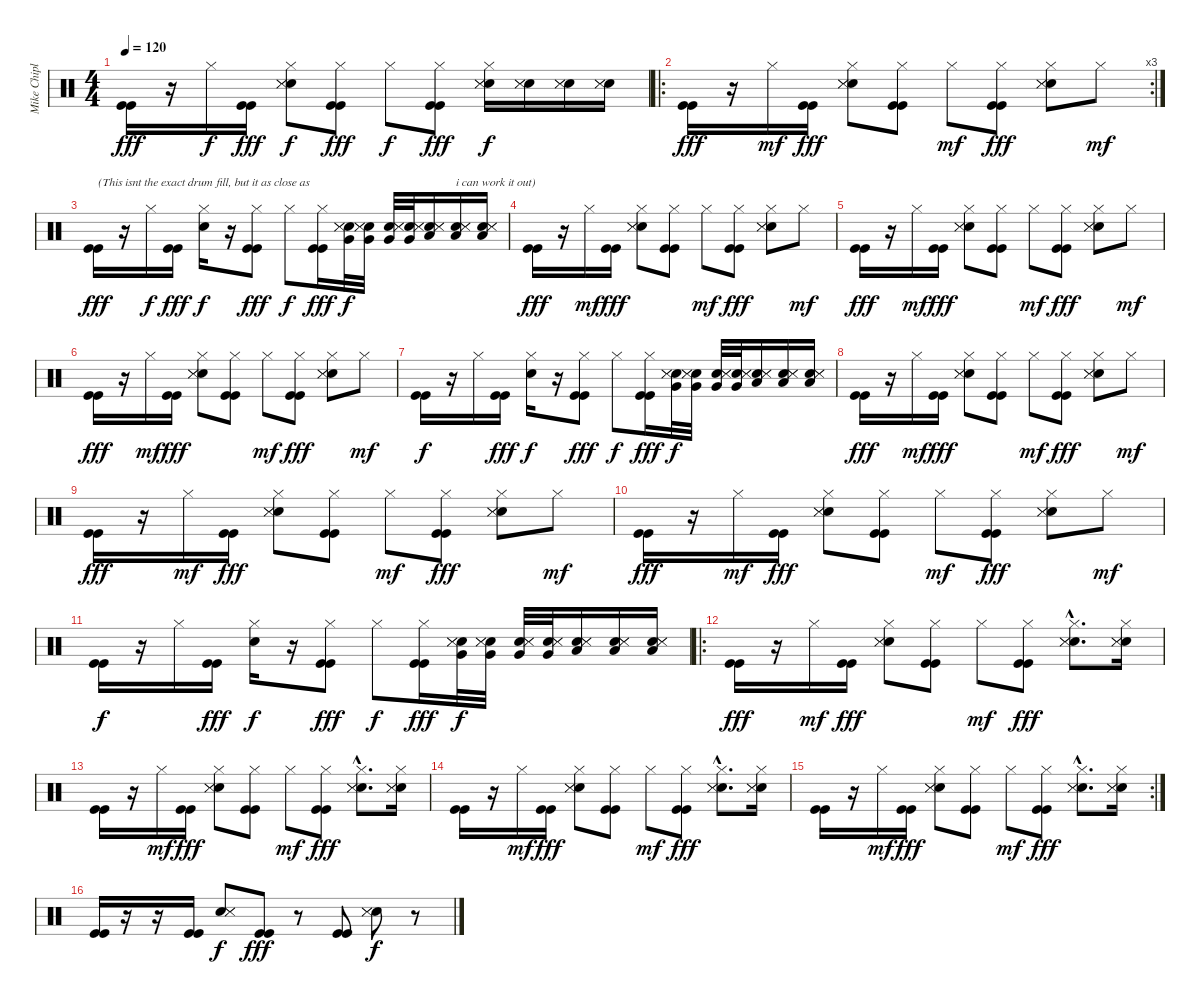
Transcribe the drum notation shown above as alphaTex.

\track ("Mike Chiplin" "Mike Chipl") {instrument percussion}
\staff {score}
\articulation defaults
\ts (4 4)
\tempo 120
\clef neutral
\ks c
("Kick (hit)" "Kick (hit)").16{dy fff} r.16 "Hi-Hat (closed)".16{dy f} ("Kick (hit)" "Kick (hit)").16{dy fff} ("Hi-Hat (closed)" "Electric Snare (hit)" "Snare (side stick) 3" "Snare (side stick) 3").8{dy f} ("Hi-Hat (closed)" "Kick (hit)" "Kick (hit)").8{dy fff} "Hi-Hat (closed)".8{dy f} ("Hi-Hat (closed)" "Kick (hit)" "Kick (hit)").8{dy fff} ("Hi-Hat (closed)" "Electric Snare (hit)" "Snare (side stick) 3" "Snare (side stick) 3").16{dy f} ("Electric Snare (hit)" "Snare (side stick) 3" "Snare (side stick) 3").16 ("Electric Snare (hit)" "Snare (side stick) 3" "Snare (side stick) 3").16 ("Electric Snare (hit)" "Snare (side stick) 3" "Snare (side stick) 3").16 |
\ro
\rc 3
("Kick (hit)" "Kick (hit)").16{dy fff} r.16 "Hi-Hat (closed)".16{dy mf} ("Kick (hit)" "Kick (hit)").16{dy fff} ("Hi-Hat (closed)" "Electric Snare (hit)" "Snare (side stick) 3" "Snare (side stick) 3").8 ("Hi-Hat (closed)" "Kick (hit)" "Kick (hit)").8 "Hi-Hat (closed)".8{dy mf} ("Hi-Hat (closed)" "Kick (hit)" "Kick (hit)").8{dy fff} ("Hi-Hat (closed)" "Electric Snare (hit)" "Snare (side stick) 3" "Snare (side stick) 3").8 "Hi-Hat (closed)".8{dy mf} |
("Kick (hit)" "Kick (hit)").16{txt "(This isnt the exact drum fill, but it as close as" dy fff} r.16 "Hi-Hat (closed)".16{dy f} ("Kick (hit)" "Kick (hit)").16{dy fff} ("Hi-Hat (closed)" "Electric Snare (hit)").16{dy f} r.16 ("Hi-Hat (closed)" "Kick (hit)" "Kick (hit)").8{dy fff} "Hi-Hat (closed)".8{dy f} ("Hi-Hat (closed)" "Kick (hit)" "Kick (hit)").16{dy fff} ("Very Low Tom (hit)" "Electric Snare (hit)" "Snare (side stick) 3" "Snare (side stick) 3").32{dy f} ("Very Low Tom (hit)" "Electric Snare (hit)" "Snare (side stick) 3" "Snare (side stick) 3").32 ("Very Low Tom (hit)" "Electric Snare (hit)" "Snare (side stick) 3" "Snare (side stick) 3").32 ("Very Low Tom (hit)" "Electric Snare (hit)" "Snare (side stick) 3" "Snare (side stick) 3").32 ("Low Tom (hit)" "Electric Snare (hit)" "Snare (side stick) 3" "Snare (side stick) 3").16 ("Low Tom (hit)" "Electric Snare (hit)" "Snare (side stick) 3" "Snare (side stick) 3").16{txt "i can work it out)"} ("Low Tom (hit)" "Electric Snare (hit)" "Snare (side stick) 3" "Snare (side stick) 3").16 |
("Kick (hit)" "Kick (hit)").16{dy fff} r.16 "Hi-Hat (closed)".16{dy mf} ("Kick (hit)" "Kick (hit)").16{dy fff} ("Hi-Hat (closed)" "Electric Snare (hit)" "Snare (side stick) 3" "Snare (side stick) 3").8 ("Hi-Hat (closed)" "Kick (hit)" "Kick (hit)").8 "Hi-Hat (closed)".8{dy mf} ("Hi-Hat (closed)" "Kick (hit)" "Kick (hit)").8{dy fff} ("Hi-Hat (closed)" "Electric Snare (hit)" "Snare (side stick) 3" "Snare (side stick) 3").8 "Hi-Hat (closed)".8{dy mf} |
("Kick (hit)" "Kick (hit)").16{dy fff} r.16 "Hi-Hat (closed)".16{dy mf} ("Kick (hit)" "Kick (hit)").16{dy fff} ("Hi-Hat (closed)" "Electric Snare (hit)" "Snare (side stick) 3" "Snare (side stick) 3").8 ("Hi-Hat (closed)" "Kick (hit)" "Kick (hit)").8 "Hi-Hat (closed)".8{dy mf} ("Hi-Hat (closed)" "Kick (hit)" "Kick (hit)").8{dy fff} ("Hi-Hat (closed)" "Electric Snare (hit)" "Snare (side stick) 3" "Snare (side stick) 3").8 "Hi-Hat (closed)".8{dy mf} |
("Kick (hit)" "Kick (hit)").16{dy fff} r.16 "Hi-Hat (closed)".16{dy mf} ("Kick (hit)" "Kick (hit)").16{dy fff} ("Hi-Hat (closed)" "Electric Snare (hit)" "Snare (side stick) 3" "Snare (side stick) 3").8 ("Hi-Hat (closed)" "Kick (hit)" "Kick (hit)").8 "Hi-Hat (closed)".8{dy mf} ("Hi-Hat (closed)" "Kick (hit)" "Kick (hit)").8{dy fff} ("Hi-Hat (closed)" "Electric Snare (hit)" "Snare (side stick) 3" "Snare (side stick) 3").8 "Hi-Hat (closed)".8{dy mf} |
("Kick (hit)" "Kick (hit)").16{dy f} r.16 "Hi-Hat (closed)".16 ("Kick (hit)" "Kick (hit)").16{dy fff} ("Hi-Hat (closed)" "Electric Snare (hit)").16{dy f} r.16 ("Hi-Hat (closed)" "Kick (hit)" "Kick (hit)").8{dy fff} "Hi-Hat (closed)".8{dy f} ("Hi-Hat (closed)" "Kick (hit)" "Kick (hit)").16{dy fff} ("Very Low Tom (hit)" "Electric Snare (hit)" "Snare (side stick) 3" "Snare (side stick) 3").32{dy f} ("Very Low Tom (hit)" "Electric Snare (hit)" "Snare (side stick) 3" "Snare (side stick) 3").32 ("Very Low Tom (hit)" "Electric Snare (hit)" "Snare (side stick) 3" "Snare (side stick) 3").32 ("Very Low Tom (hit)" "Electric Snare (hit)" "Snare (side stick) 3" "Snare (side stick) 3").32 ("Low Tom (hit)" "Electric Snare (hit)" "Snare (side stick) 3" "Snare (side stick) 3").16 ("Low Tom (hit)" "Electric Snare (hit)" "Snare (side stick) 3" "Snare (side stick) 3").16 ("Low Tom (hit)" "Electric Snare (hit)" "Snare (side stick) 3" "Snare (side stick) 3").16 |
("Kick (hit)" "Kick (hit)").16{dy fff} r.16 "Hi-Hat (closed)".16{dy mf} ("Kick (hit)" "Kick (hit)").16{dy fff} ("Hi-Hat (closed)" "Electric Snare (hit)" "Snare (side stick) 3" "Snare (side stick) 3").8 ("Hi-Hat (closed)" "Kick (hit)" "Kick (hit)").8 "Hi-Hat (closed)".8{dy mf} ("Hi-Hat (closed)" "Kick (hit)" "Kick (hit)").8{dy fff} ("Hi-Hat (closed)" "Electric Snare (hit)" "Snare (side stick) 3" "Snare (side stick) 3").8 "Hi-Hat (closed)".8{dy mf} |
("Kick (hit)" "Kick (hit)").16{dy fff} r.16 "Hi-Hat (closed)".16{dy mf} ("Kick (hit)" "Kick (hit)").16{dy fff} ("Hi-Hat (closed)" "Electric Snare (hit)" "Snare (side stick) 3" "Snare (side stick) 3").8 ("Hi-Hat (closed)" "Kick (hit)" "Kick (hit)").8 "Hi-Hat (closed)".8{dy mf} ("Hi-Hat (closed)" "Kick (hit)" "Kick (hit)").8{dy fff} ("Hi-Hat (closed)" "Electric Snare (hit)" "Snare (side stick) 3" "Snare (side stick) 3").8 "Hi-Hat (closed)".8{dy mf} |
("Kick (hit)" "Kick (hit)").16{dy fff} r.16 "Hi-Hat (closed)".16{dy mf} ("Kick (hit)" "Kick (hit)").16{dy fff} ("Hi-Hat (closed)" "Electric Snare (hit)" "Snare (side stick) 3" "Snare (side stick) 3").8 ("Hi-Hat (closed)" "Kick (hit)" "Kick (hit)").8 "Hi-Hat (closed)".8{dy mf} ("Hi-Hat (closed)" "Kick (hit)" "Kick (hit)").8{dy fff} ("Hi-Hat (closed)" "Electric Snare (hit)" "Snare (side stick) 3" "Snare (side stick) 3").8 "Hi-Hat (closed)".8{dy mf} |
("Kick (hit)" "Kick (hit)").16{dy f} r.16 "Hi-Hat (closed)".16 ("Kick (hit)" "Kick (hit)").16{dy fff} ("Hi-Hat (closed)" "Electric Snare (hit)").16{dy f} r.16 ("Hi-Hat (closed)" "Kick (hit)" "Kick (hit)").8{dy fff} "Hi-Hat (closed)".8{dy f} ("Hi-Hat (closed)" "Kick (hit)" "Kick (hit)").16{dy fff} ("Very Low Tom (hit)" "Electric Snare (hit)" "Snare (side stick) 3" "Snare (side stick) 3").32{dy f} ("Very Low Tom (hit)" "Electric Snare (hit)" "Snare (side stick) 3" "Snare (side stick) 3").32 ("Very Low Tom (hit)" "Electric Snare (hit)" "Snare (side stick) 3" "Snare (side stick) 3").32 ("Very Low Tom (hit)" "Electric Snare (hit)" "Snare (side stick) 3" "Snare (side stick) 3").32 ("Low Tom (hit)" "Electric Snare (hit)" "Snare (side stick) 3" "Snare (side stick) 3").16 ("Low Tom (hit)" "Electric Snare (hit)" "Snare (side stick) 3" "Snare (side stick) 3").16 ("Low Tom (hit)" "Electric Snare (hit)" "Snare (side stick) 3" "Snare (side stick) 3").16 |
\ro
("Kick (hit)" "Kick (hit)").16{dy fff} r.16 "Hi-Hat (closed)".16{dy mf} ("Kick (hit)" "Kick (hit)").16{dy fff} ("Hi-Hat (closed)" "Electric Snare (hit)" "Snare (side stick) 3" "Snare (side stick) 3").8 ("Hi-Hat (closed)" "Kick (hit)" "Kick (hit)").8 "Hi-Hat (closed)".8{dy mf} ("Hi-Hat (closed)" "Kick (hit)" "Kick (hit)").8{dy fff} ("Hi-Hat (closed)"{hac} "Electric Snare (hit)"{hac} "Snare (side stick) 3"{hac} "Snare (side stick) 3"{hac}).8{d} ("Hi-Hat (closed)" "Electric Snare (hit)" "Snare (side stick) 3" "Snare (side stick) 3").16 |
("Kick (hit)" "Kick (hit)").16 r.16 "Hi-Hat (closed)".16{dy mf} ("Kick (hit)" "Kick (hit)").16{dy fff} ("Hi-Hat (closed)" "Electric Snare (hit)" "Snare (side stick) 3" "Snare (side stick) 3").8 ("Hi-Hat (closed)" "Kick (hit)" "Kick (hit)").8 "Hi-Hat (closed)".8{dy mf} ("Hi-Hat (closed)" "Kick (hit)" "Kick (hit)").8{dy fff} ("Hi-Hat (closed)"{hac} "Electric Snare (hit)"{hac} "Snare (side stick) 3"{hac} "Snare (side stick) 3"{hac}).8{d} ("Hi-Hat (closed)" "Electric Snare (hit)" "Snare (side stick) 3" "Snare (side stick) 3").16 |
("Kick (hit)" "Kick (hit)").16 r.16 "Hi-Hat (closed)".16{dy mf} ("Kick (hit)" "Kick (hit)").16{dy fff} ("Hi-Hat (closed)" "Electric Snare (hit)" "Snare (side stick) 3" "Snare (side stick) 3").8 ("Hi-Hat (closed)" "Kick (hit)" "Kick (hit)").8 "Hi-Hat (closed)".8{dy mf} ("Hi-Hat (closed)" "Kick (hit)" "Kick (hit)").8{dy fff} ("Hi-Hat (closed)"{hac} "Electric Snare (hit)"{hac} "Snare (side stick) 3"{hac} "Snare (side stick) 3"{hac}).8{d} ("Hi-Hat (closed)" "Electric Snare (hit)" "Snare (side stick) 3" "Snare (side stick) 3").16 |
\rc 2
("Kick (hit)" "Kick (hit)").16 r.16 "Hi-Hat (closed)".16{dy mf} ("Kick (hit)" "Kick (hit)").16{dy fff} ("Hi-Hat (closed)" "Electric Snare (hit)" "Snare (side stick) 3" "Snare (side stick) 3").8 ("Hi-Hat (closed)" "Kick (hit)" "Kick (hit)").8 "Hi-Hat (closed)".8{dy mf} ("Hi-Hat (closed)" "Kick (hit)" "Kick (hit)").8{dy fff} ("Hi-Hat (closed)"{hac} "Electric Snare (hit)"{hac} "Snare (side stick) 3"{hac} "Snare (side stick) 3"{hac}).8{d} ("Hi-Hat (closed)" "Electric Snare (hit)" "Snare (side stick) 3" "Snare (side stick) 3").16 |
("Kick (hit)" "Kick (hit)").16 r.16 r.16 ("Kick (hit)" "Kick (hit)").16 ("Electric Snare (hit)" "Snare (side stick) 3" "Snare (side stick) 3").8{dy f} ("Kick (hit)" "Kick (hit)").8{dy fff} r.8 ("Kick (hit)" "Kick (hit)").8 ("Electric Snare (hit)" "Snare (side stick) 3" "Snare (side stick) 3").8{dy f} r.8
